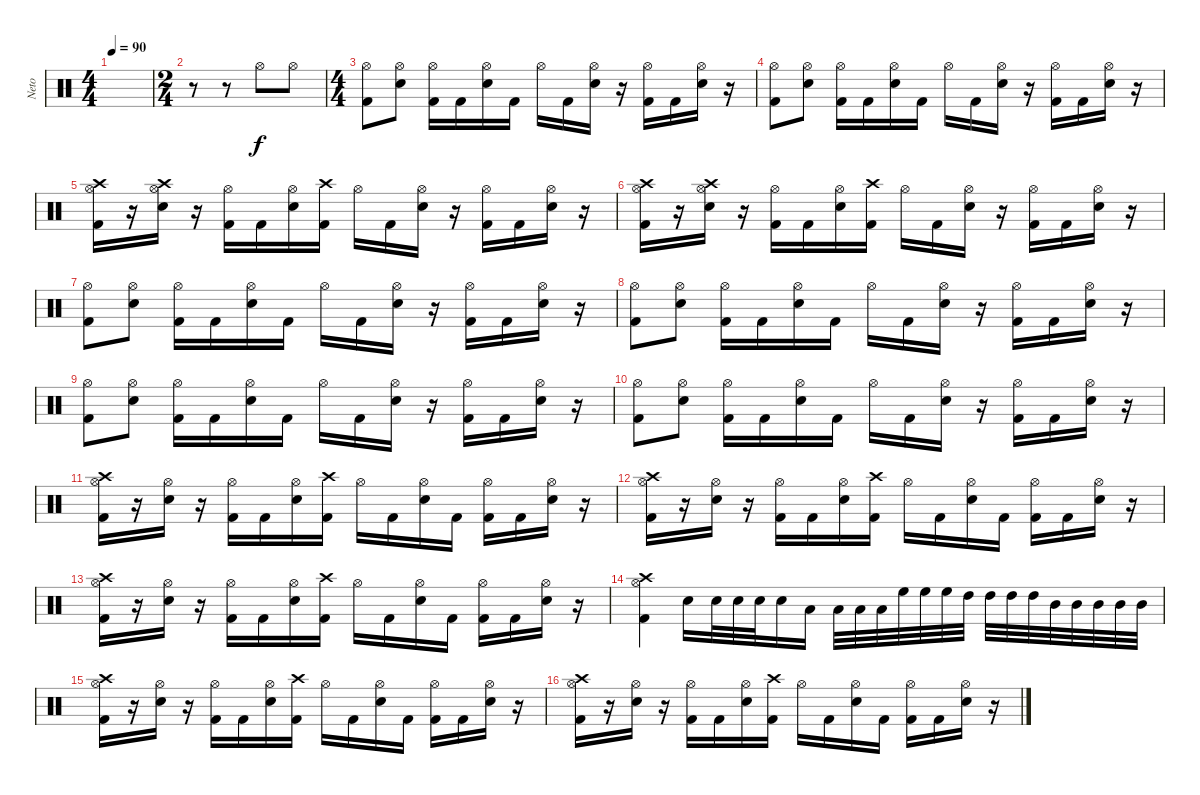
\track ("Neto" "Neto") {instrument percussion}
\staff {score}
\articulation defaults
\ts (4 4)
\tempo 90
\clef neutral
\ks c
|
\ts (2 4)
r.8 r.8 "Hi-Hat (open)".8 "Hi-Hat (open)".8 |
\ts (4 4)
("Kick (hit) 2" "Hi-Hat (open)").8 ("Snare (hit) 2" "Hi-Hat (open)").8 ("Kick (hit) 2" "Hi-Hat (open)").16 "Kick (hit) 2".16 ("Snare (hit) 2" "Hi-Hat (open)").16 "Kick (hit) 2".16 "Hi-Hat (open)".16 "Kick (hit) 2".16 ("Snare (hit) 2" "Hi-Hat (open)").16 r.16 ("Kick (hit) 2" "Hi-Hat (open)").16 "Kick (hit) 2".16 ("Snare (hit) 2" "Hi-Hat (open)").16 r.16 |
("Kick (hit) 2" "Hi-Hat (open)").8 ("Snare (hit) 2" "Hi-Hat (open)").8 ("Kick (hit) 2" "Hi-Hat (open)").16 "Kick (hit) 2".16 ("Snare (hit) 2" "Hi-Hat (open)").16 "Kick (hit) 2".16 "Hi-Hat (open)".16 "Kick (hit) 2".16 ("Snare (hit) 2" "Hi-Hat (open)").16 r.16 ("Kick (hit) 2" "Hi-Hat (open)").16 "Kick (hit) 2".16 ("Snare (hit) 2" "Hi-Hat (open)").16 r.16 |
("Kick (hit) 2" "Hi-Hat (open)" "Crash high (hit)").16 r.16 ("Snare (hit) 2" "Hi-Hat (open)" "Crash high (hit)").16 r.16 ("Kick (hit) 2" "Hi-Hat (open)").16 "Kick (hit) 2".16 ("Snare (hit) 2" "Hi-Hat (open)").16 ("Kick (hit) 2" "Crash high (hit)").16 "Hi-Hat (open)".16 "Kick (hit) 2".16 ("Snare (hit) 2" "Hi-Hat (open)").16 r.16 ("Kick (hit) 2" "Hi-Hat (open)").16 "Kick (hit) 2".16 ("Snare (hit) 2" "Hi-Hat (open)").16 r.16 |
("Kick (hit) 2" "Hi-Hat (open)" "Crash high (hit)").16 r.16 ("Snare (hit) 2" "Hi-Hat (open)" "Crash high (hit)").16 r.16 ("Kick (hit) 2" "Hi-Hat (open)").16 "Kick (hit) 2".16 ("Snare (hit) 2" "Hi-Hat (open)").16 ("Kick (hit) 2" "Crash high (hit)").16 "Hi-Hat (open)".16 "Kick (hit) 2".16 ("Snare (hit) 2" "Hi-Hat (open)").16 r.16 ("Kick (hit) 2" "Hi-Hat (open)").16 "Kick (hit) 2".16 ("Snare (hit) 2" "Hi-Hat (open)").16 r.16 |
("Kick (hit) 2" "Hi-Hat (open)").8 ("Snare (hit) 2" "Hi-Hat (open)").8 ("Kick (hit) 2" "Hi-Hat (open)").16 "Kick (hit) 2".16 ("Snare (hit) 2" "Hi-Hat (open)").16 "Kick (hit) 2".16 "Hi-Hat (open)".16 "Kick (hit) 2".16 ("Snare (hit) 2" "Hi-Hat (open)").16 r.16 ("Kick (hit) 2" "Hi-Hat (open)").16 "Kick (hit) 2".16 ("Snare (hit) 2" "Hi-Hat (open)").16 r.16 |
("Kick (hit) 2" "Hi-Hat (open)").8 ("Snare (hit) 2" "Hi-Hat (open)").8 ("Kick (hit) 2" "Hi-Hat (open)").16 "Kick (hit) 2".16 ("Snare (hit) 2" "Hi-Hat (open)").16 "Kick (hit) 2".16 "Hi-Hat (open)".16 "Kick (hit) 2".16 ("Snare (hit) 2" "Hi-Hat (open)").16 r.16 ("Kick (hit) 2" "Hi-Hat (open)").16 "Kick (hit) 2".16 ("Snare (hit) 2" "Hi-Hat (open)").16 r.16 |
("Kick (hit) 2" "Hi-Hat (open)").8 ("Snare (hit) 2" "Hi-Hat (open)").8 ("Kick (hit) 2" "Hi-Hat (open)").16 "Kick (hit) 2".16 ("Snare (hit) 2" "Hi-Hat (open)").16 "Kick (hit) 2".16 "Hi-Hat (open)".16 "Kick (hit) 2".16 ("Snare (hit) 2" "Hi-Hat (open)").16 r.16 ("Kick (hit) 2" "Hi-Hat (open)").16 "Kick (hit) 2".16 ("Snare (hit) 2" "Hi-Hat (open)").16 r.16 |
("Kick (hit) 2" "Hi-Hat (open)").8 ("Snare (hit) 2" "Hi-Hat (open)").8 ("Kick (hit) 2" "Hi-Hat (open)").16 "Kick (hit) 2".16 ("Snare (hit) 2" "Hi-Hat (open)").16 "Kick (hit) 2".16 "Hi-Hat (open)".16 "Kick (hit) 2".16 ("Snare (hit) 2" "Hi-Hat (open)").16 r.16 ("Kick (hit) 2" "Hi-Hat (open)").16 "Kick (hit) 2".16 ("Snare (hit) 2" "Hi-Hat (open)").16 r.16 |
("Kick (hit) 2" "Hi-Hat (open)" "Crash high (hit)").16 r.16 ("Snare (hit) 2" "Hi-Hat (open)").16 r.16 ("Kick (hit) 2" "Hi-Hat (open)").16 "Kick (hit) 2".16 ("Snare (hit) 2" "Hi-Hat (open)").16 ("Kick (hit) 2" "Crash high (hit)").16 "Hi-Hat (open)".16 "Kick (hit) 2".16 ("Snare (hit) 2" "Hi-Hat (open)").16 "Kick (hit) 2".16 ("Kick (hit) 2" "Hi-Hat (open)").16 "Kick (hit) 2".16 ("Snare (hit) 2" "Hi-Hat (open)").16 r.16 |
("Kick (hit) 2" "Hi-Hat (open)" "Crash high (hit)").16 r.16 ("Snare (hit) 2" "Hi-Hat (open)").16 r.16 ("Kick (hit) 2" "Hi-Hat (open)").16 "Kick (hit) 2".16 ("Snare (hit) 2" "Hi-Hat (open)").16 ("Kick (hit) 2" "Crash high (hit)").16 "Hi-Hat (open)".16 "Kick (hit) 2".16 ("Snare (hit) 2" "Hi-Hat (open)").16 "Kick (hit) 2".16 ("Kick (hit) 2" "Hi-Hat (open)").16 "Kick (hit) 2".16 ("Snare (hit) 2" "Hi-Hat (open)").16 r.16 |
("Kick (hit) 2" "Hi-Hat (open)" "Crash high (hit)").16 r.16 ("Snare (hit) 2" "Hi-Hat (open)").16 r.16 ("Kick (hit) 2" "Hi-Hat (open)").16 "Kick (hit) 2".16 ("Snare (hit) 2" "Hi-Hat (open)").16 ("Kick (hit) 2" "Crash high (hit)").16 "Hi-Hat (open)".16 "Kick (hit) 2".16 ("Snare (hit) 2" "Hi-Hat (open)").16 "Kick (hit) 2".16 ("Kick (hit) 2" "Hi-Hat (open)").16 "Kick (hit) 2".16 ("Snare (hit) 2" "Hi-Hat (open)").16 r.16 |
("Kick (hit) 2" "Hi-Hat (open)" "Crash high (hit)").4 "Snare (hit) 2".16 "Snare (hit) 2".32 "Snare (hit) 2".32 "Snare (hit) 2".32 "Snare (hit) 2".16 "Low Tom (hit)".16{balance 0} "Low Tom (hit)".32 "Low Tom (hit)".32{balance 4} "Low Tom (hit)".32 "High Floor Tom (hit)".32 "High Floor Tom (hit)".32{balance 6} "High Floor Tom (hit)".32 "High Tom (hit)".32{balance 8} "High Tom (hit)".32 "High Tom (hit)".32{balance 10} "High Tom (hit)".32 "Mid Tom (hit)".32{balance 12} "Mid Tom (hit)".32 "Mid Tom (hit)".32{balance 16} "Mid Tom (hit)".32 "Mid Tom (hit)".32 |
("Kick (hit) 2" "Hi-Hat (open)" "Crash high (hit)").16{balance 8} r.16 ("Snare (hit) 2" "Hi-Hat (open)").16 r.16 ("Kick (hit) 2" "Hi-Hat (open)").16 "Kick (hit) 2".16 ("Snare (hit) 2" "Hi-Hat (open)").16 ("Kick (hit) 2" "Crash high (hit)").16 "Hi-Hat (open)".16 "Kick (hit) 2".16 ("Snare (hit) 2" "Hi-Hat (open)").16 "Kick (hit) 2".16 ("Kick (hit) 2" "Hi-Hat (open)").16 "Kick (hit) 2".16 ("Snare (hit) 2" "Hi-Hat (open)").16 r.16 |
("Kick (hit) 2" "Hi-Hat (open)" "Crash high (hit)").16 r.16 ("Snare (hit) 2" "Hi-Hat (open)").16 r.16 ("Kick (hit) 2" "Hi-Hat (open)").16 "Kick (hit) 2".16 ("Snare (hit) 2" "Hi-Hat (open)").16 ("Kick (hit) 2" "Crash high (hit)").16 "Hi-Hat (open)".16 "Kick (hit) 2".16 ("Snare (hit) 2" "Hi-Hat (open)").16 "Kick (hit) 2".16 ("Kick (hit) 2" "Hi-Hat (open)").16 "Kick (hit) 2".16 ("Snare (hit) 2" "Hi-Hat (open)").16 r.16
